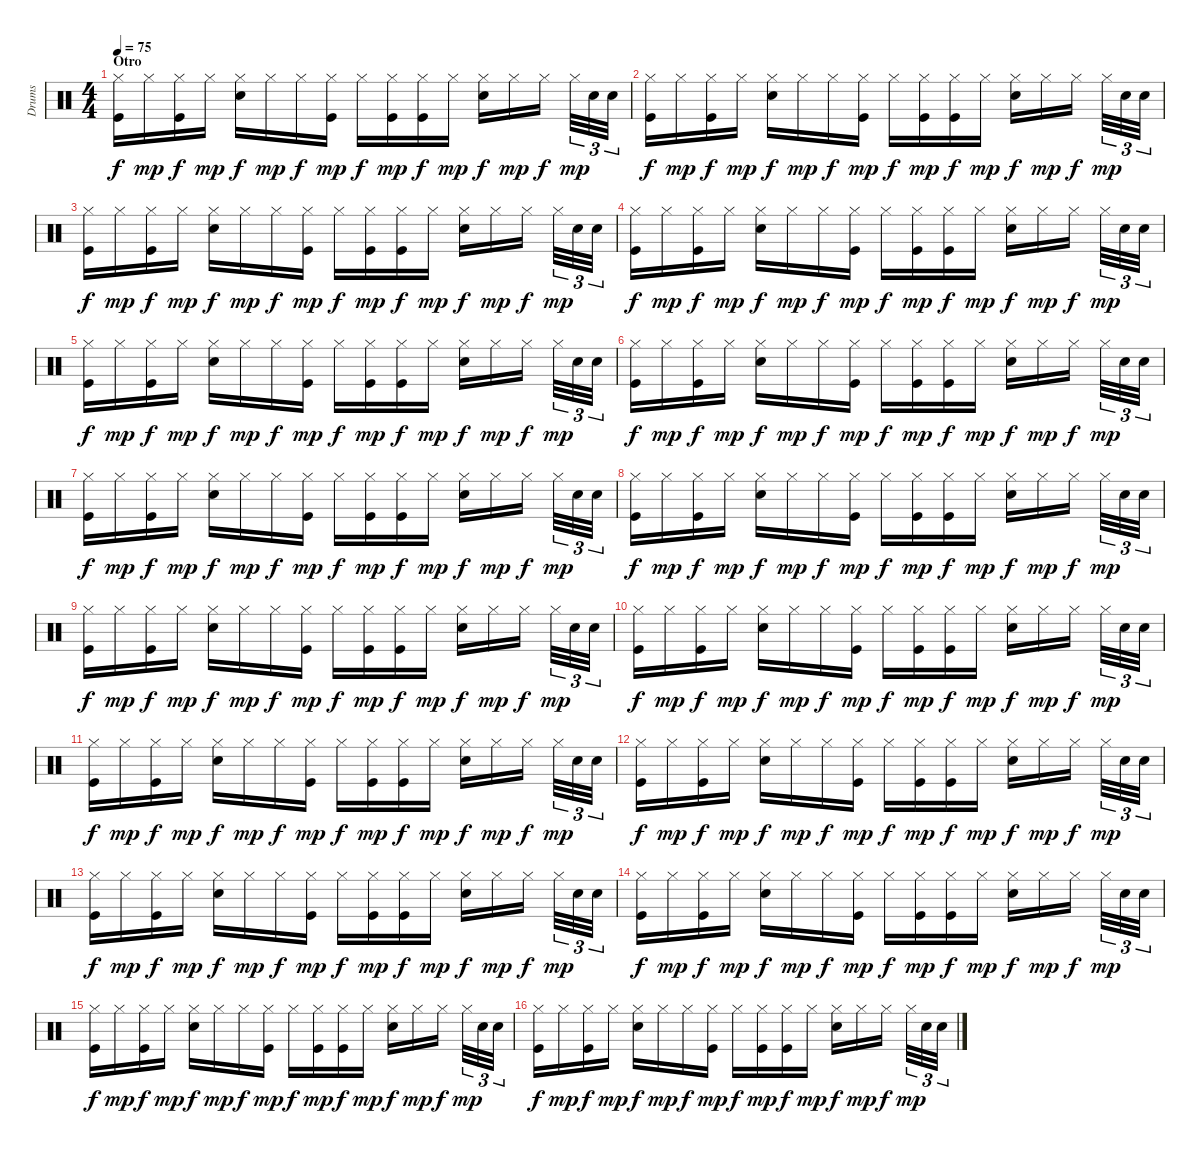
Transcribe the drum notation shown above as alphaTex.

\track ("Drums" "Drums") {instrument percussion}
\staff {score}
\articulation defaults
\ts (4 4)
\section ("" "Otro")
\tempo 75
\clef neutral
\ks c
("Hi-Hat (closed)" "Kick (hit)").16{dy f} "Hi-Hat (closed)".16{dy mp} ("Hi-Hat (closed)" "Kick (hit)").16{dy f} "Hi-Hat (closed)".16{dy mp} ("Hi-Hat (closed)" "Snare (hit) 2").16{dy f} "Hi-Hat (closed)".16{dy mp} "Hi-Hat (closed)".16{dy f} ("Hi-Hat (closed)" "Kick (hit)").16{dy mp} "Hi-Hat (closed)".16{dy f} ("Hi-Hat (closed)" "Kick (hit)").16{dy mp} ("Hi-Hat (closed)" "Kick (hit)").16{dy f} "Hi-Hat (closed)".16{dy mp} ("Hi-Hat (closed)" "Snare (hit) 2").16{dy f} "Hi-Hat (closed)".16{dy mp} "Hi-Hat (closed)".16{dy f beam splitsecondary} "Hi-Hat (closed)".32{tu (3 2) dy mp} "Snare (hit) 2".32{tu (3 2)} "Snare (hit) 2".32{tu (3 2)} |
("Hi-Hat (closed)" "Kick (hit)").16{dy f} "Hi-Hat (closed)".16{dy mp} ("Hi-Hat (closed)" "Kick (hit)").16{dy f} "Hi-Hat (closed)".16{dy mp} ("Hi-Hat (closed)" "Snare (hit) 2").16{dy f} "Hi-Hat (closed)".16{dy mp} "Hi-Hat (closed)".16{dy f} ("Hi-Hat (closed)" "Kick (hit)").16{dy mp} "Hi-Hat (closed)".16{dy f} ("Hi-Hat (closed)" "Kick (hit)").16{dy mp} ("Hi-Hat (closed)" "Kick (hit)").16{dy f} "Hi-Hat (closed)".16{dy mp} ("Hi-Hat (closed)" "Snare (hit) 2").16{dy f} "Hi-Hat (closed)".16{dy mp} "Hi-Hat (closed)".16{dy f beam splitsecondary} "Hi-Hat (closed)".32{tu (3 2) dy mp} "Snare (hit) 2".32{tu (3 2)} "Snare (hit) 2".32{tu (3 2)} |
("Hi-Hat (closed)" "Kick (hit)").16{dy f} "Hi-Hat (closed)".16{dy mp} ("Hi-Hat (closed)" "Kick (hit)").16{dy f} "Hi-Hat (closed)".16{dy mp} ("Hi-Hat (closed)" "Snare (hit) 2").16{dy f} "Hi-Hat (closed)".16{dy mp} "Hi-Hat (closed)".16{dy f} ("Hi-Hat (closed)" "Kick (hit)").16{dy mp} "Hi-Hat (closed)".16{dy f} ("Hi-Hat (closed)" "Kick (hit)").16{dy mp} ("Hi-Hat (closed)" "Kick (hit)").16{dy f} "Hi-Hat (closed)".16{dy mp} ("Hi-Hat (closed)" "Snare (hit) 2").16{dy f} "Hi-Hat (closed)".16{dy mp} "Hi-Hat (closed)".16{dy f beam splitsecondary} "Hi-Hat (closed)".32{tu (3 2) dy mp} "Snare (hit) 2".32{tu (3 2)} "Snare (hit) 2".32{tu (3 2)} |
("Hi-Hat (closed)" "Kick (hit)").16{dy f} "Hi-Hat (closed)".16{dy mp} ("Hi-Hat (closed)" "Kick (hit)").16{dy f} "Hi-Hat (closed)".16{dy mp} ("Hi-Hat (closed)" "Snare (hit) 2").16{dy f} "Hi-Hat (closed)".16{dy mp} "Hi-Hat (closed)".16{dy f} ("Hi-Hat (closed)" "Kick (hit)").16{dy mp} "Hi-Hat (closed)".16{dy f} ("Hi-Hat (closed)" "Kick (hit)").16{dy mp} ("Hi-Hat (closed)" "Kick (hit)").16{dy f} "Hi-Hat (closed)".16{dy mp} ("Hi-Hat (closed)" "Snare (hit) 2").16{dy f} "Hi-Hat (closed)".16{dy mp} "Hi-Hat (closed)".16{dy f beam splitsecondary} "Hi-Hat (closed)".32{tu (3 2) dy mp} "Snare (hit) 2".32{tu (3 2)} "Snare (hit) 2".32{tu (3 2)} |
("Hi-Hat (closed)" "Kick (hit)").16{dy f} "Hi-Hat (closed)".16{dy mp} ("Hi-Hat (closed)" "Kick (hit)").16{dy f} "Hi-Hat (closed)".16{dy mp} ("Hi-Hat (closed)" "Snare (hit) 2").16{dy f} "Hi-Hat (closed)".16{dy mp} "Hi-Hat (closed)".16{dy f} ("Hi-Hat (closed)" "Kick (hit)").16{dy mp} "Hi-Hat (closed)".16{dy f} ("Hi-Hat (closed)" "Kick (hit)").16{dy mp} ("Hi-Hat (closed)" "Kick (hit)").16{dy f} "Hi-Hat (closed)".16{dy mp} ("Hi-Hat (closed)" "Snare (hit) 2").16{dy f} "Hi-Hat (closed)".16{dy mp} "Hi-Hat (closed)".16{dy f beam splitsecondary} "Hi-Hat (closed)".32{tu (3 2) dy mp} "Snare (hit) 2".32{tu (3 2)} "Snare (hit) 2".32{tu (3 2)} |
("Hi-Hat (closed)" "Kick (hit)").16{dy f} "Hi-Hat (closed)".16{dy mp} ("Hi-Hat (closed)" "Kick (hit)").16{dy f} "Hi-Hat (closed)".16{dy mp} ("Hi-Hat (closed)" "Snare (hit) 2").16{dy f} "Hi-Hat (closed)".16{dy mp} "Hi-Hat (closed)".16{dy f} ("Hi-Hat (closed)" "Kick (hit)").16{dy mp} "Hi-Hat (closed)".16{dy f} ("Hi-Hat (closed)" "Kick (hit)").16{dy mp} ("Hi-Hat (closed)" "Kick (hit)").16{dy f} "Hi-Hat (closed)".16{dy mp} ("Hi-Hat (closed)" "Snare (hit) 2").16{dy f} "Hi-Hat (closed)".16{dy mp} "Hi-Hat (closed)".16{dy f beam splitsecondary} "Hi-Hat (closed)".32{tu (3 2) dy mp} "Snare (hit) 2".32{tu (3 2)} "Snare (hit) 2".32{tu (3 2)} |
("Hi-Hat (closed)" "Kick (hit)").16{dy f} "Hi-Hat (closed)".16{dy mp} ("Hi-Hat (closed)" "Kick (hit)").16{dy f} "Hi-Hat (closed)".16{dy mp} ("Hi-Hat (closed)" "Snare (hit) 2").16{dy f} "Hi-Hat (closed)".16{dy mp} "Hi-Hat (closed)".16{dy f} ("Hi-Hat (closed)" "Kick (hit)").16{dy mp} "Hi-Hat (closed)".16{dy f} ("Hi-Hat (closed)" "Kick (hit)").16{dy mp} ("Hi-Hat (closed)" "Kick (hit)").16{dy f} "Hi-Hat (closed)".16{dy mp} ("Hi-Hat (closed)" "Snare (hit) 2").16{dy f} "Hi-Hat (closed)".16{dy mp} "Hi-Hat (closed)".16{dy f beam splitsecondary} "Hi-Hat (closed)".32{tu (3 2) dy mp} "Snare (hit) 2".32{tu (3 2)} "Snare (hit) 2".32{tu (3 2)} |
("Hi-Hat (closed)" "Kick (hit)").16{dy f} "Hi-Hat (closed)".16{dy mp} ("Hi-Hat (closed)" "Kick (hit)").16{dy f} "Hi-Hat (closed)".16{dy mp} ("Hi-Hat (closed)" "Snare (hit) 2").16{dy f} "Hi-Hat (closed)".16{dy mp} "Hi-Hat (closed)".16{dy f} ("Hi-Hat (closed)" "Kick (hit)").16{dy mp} "Hi-Hat (closed)".16{dy f} ("Hi-Hat (closed)" "Kick (hit)").16{dy mp} ("Hi-Hat (closed)" "Kick (hit)").16{dy f} "Hi-Hat (closed)".16{dy mp} ("Hi-Hat (closed)" "Snare (hit) 2").16{dy f} "Hi-Hat (closed)".16{dy mp} "Hi-Hat (closed)".16{dy f beam splitsecondary} "Hi-Hat (closed)".32{tu (3 2) dy mp} "Snare (hit) 2".32{tu (3 2)} "Snare (hit) 2".32{tu (3 2)} |
("Hi-Hat (closed)" "Kick (hit)").16{dy f} "Hi-Hat (closed)".16{dy mp} ("Hi-Hat (closed)" "Kick (hit)").16{dy f} "Hi-Hat (closed)".16{dy mp} ("Hi-Hat (closed)" "Snare (hit) 2").16{dy f} "Hi-Hat (closed)".16{dy mp} "Hi-Hat (closed)".16{dy f} ("Hi-Hat (closed)" "Kick (hit)").16{dy mp} "Hi-Hat (closed)".16{dy f} ("Hi-Hat (closed)" "Kick (hit)").16{dy mp} ("Hi-Hat (closed)" "Kick (hit)").16{dy f} "Hi-Hat (closed)".16{dy mp} ("Hi-Hat (closed)" "Snare (hit) 2").16{dy f} "Hi-Hat (closed)".16{dy mp} "Hi-Hat (closed)".16{dy f beam splitsecondary} "Hi-Hat (closed)".32{tu (3 2) dy mp} "Snare (hit) 2".32{tu (3 2)} "Snare (hit) 2".32{tu (3 2)} |
("Hi-Hat (closed)" "Kick (hit)").16{dy f} "Hi-Hat (closed)".16{dy mp} ("Hi-Hat (closed)" "Kick (hit)").16{dy f} "Hi-Hat (closed)".16{dy mp} ("Hi-Hat (closed)" "Snare (hit) 2").16{dy f} "Hi-Hat (closed)".16{dy mp} "Hi-Hat (closed)".16{dy f} ("Hi-Hat (closed)" "Kick (hit)").16{dy mp} "Hi-Hat (closed)".16{dy f} ("Hi-Hat (closed)" "Kick (hit)").16{dy mp} ("Hi-Hat (closed)" "Kick (hit)").16{dy f} "Hi-Hat (closed)".16{dy mp} ("Hi-Hat (closed)" "Snare (hit) 2").16{dy f} "Hi-Hat (closed)".16{dy mp} "Hi-Hat (closed)".16{dy f beam splitsecondary} "Hi-Hat (closed)".32{tu (3 2) dy mp} "Snare (hit) 2".32{tu (3 2)} "Snare (hit) 2".32{tu (3 2)} |
("Hi-Hat (closed)" "Kick (hit)").16{dy f} "Hi-Hat (closed)".16{dy mp} ("Hi-Hat (closed)" "Kick (hit)").16{dy f} "Hi-Hat (closed)".16{dy mp} ("Hi-Hat (closed)" "Snare (hit) 2").16{dy f} "Hi-Hat (closed)".16{dy mp} "Hi-Hat (closed)".16{dy f} ("Hi-Hat (closed)" "Kick (hit)").16{dy mp} "Hi-Hat (closed)".16{dy f} ("Hi-Hat (closed)" "Kick (hit)").16{dy mp} ("Hi-Hat (closed)" "Kick (hit)").16{dy f} "Hi-Hat (closed)".16{dy mp} ("Hi-Hat (closed)" "Snare (hit) 2").16{dy f} "Hi-Hat (closed)".16{dy mp} "Hi-Hat (closed)".16{dy f beam splitsecondary} "Hi-Hat (closed)".32{tu (3 2) dy mp} "Snare (hit) 2".32{tu (3 2)} "Snare (hit) 2".32{tu (3 2)} |
("Hi-Hat (closed)" "Kick (hit)").16{dy f} "Hi-Hat (closed)".16{dy mp} ("Hi-Hat (closed)" "Kick (hit)").16{dy f} "Hi-Hat (closed)".16{dy mp} ("Hi-Hat (closed)" "Snare (hit) 2").16{dy f} "Hi-Hat (closed)".16{dy mp} "Hi-Hat (closed)".16{dy f} ("Hi-Hat (closed)" "Kick (hit)").16{dy mp} "Hi-Hat (closed)".16{dy f} ("Hi-Hat (closed)" "Kick (hit)").16{dy mp} ("Hi-Hat (closed)" "Kick (hit)").16{dy f} "Hi-Hat (closed)".16{dy mp} ("Hi-Hat (closed)" "Snare (hit) 2").16{dy f} "Hi-Hat (closed)".16{dy mp} "Hi-Hat (closed)".16{dy f beam splitsecondary} "Hi-Hat (closed)".32{tu (3 2) dy mp} "Snare (hit) 2".32{tu (3 2)} "Snare (hit) 2".32{tu (3 2)} |
("Hi-Hat (closed)" "Kick (hit)").16{dy f} "Hi-Hat (closed)".16{dy mp} ("Hi-Hat (closed)" "Kick (hit)").16{dy f} "Hi-Hat (closed)".16{dy mp} ("Hi-Hat (closed)" "Snare (hit) 2").16{dy f} "Hi-Hat (closed)".16{dy mp} "Hi-Hat (closed)".16{dy f} ("Hi-Hat (closed)" "Kick (hit)").16{dy mp} "Hi-Hat (closed)".16{dy f} ("Hi-Hat (closed)" "Kick (hit)").16{dy mp} ("Hi-Hat (closed)" "Kick (hit)").16{dy f} "Hi-Hat (closed)".16{dy mp} ("Hi-Hat (closed)" "Snare (hit) 2").16{dy f} "Hi-Hat (closed)".16{dy mp} "Hi-Hat (closed)".16{dy f beam splitsecondary} "Hi-Hat (closed)".32{tu (3 2) dy mp} "Snare (hit) 2".32{tu (3 2)} "Snare (hit) 2".32{tu (3 2)} |
("Hi-Hat (closed)" "Kick (hit)").16{dy f} "Hi-Hat (closed)".16{dy mp} ("Hi-Hat (closed)" "Kick (hit)").16{dy f} "Hi-Hat (closed)".16{dy mp} ("Hi-Hat (closed)" "Snare (hit) 2").16{dy f} "Hi-Hat (closed)".16{dy mp} "Hi-Hat (closed)".16{dy f} ("Hi-Hat (closed)" "Kick (hit)").16{dy mp} "Hi-Hat (closed)".16{dy f} ("Hi-Hat (closed)" "Kick (hit)").16{dy mp} ("Hi-Hat (closed)" "Kick (hit)").16{dy f} "Hi-Hat (closed)".16{dy mp} ("Hi-Hat (closed)" "Snare (hit) 2").16{dy f} "Hi-Hat (closed)".16{dy mp} "Hi-Hat (closed)".16{dy f beam splitsecondary} "Hi-Hat (closed)".32{tu (3 2) dy mp} "Snare (hit) 2".32{tu (3 2)} "Snare (hit) 2".32{tu (3 2)} |
("Hi-Hat (closed)" "Kick (hit)").16{dy f} "Hi-Hat (closed)".16{dy mp} ("Hi-Hat (closed)" "Kick (hit)").16{dy f} "Hi-Hat (closed)".16{dy mp} ("Hi-Hat (closed)" "Snare (hit) 2").16{dy f} "Hi-Hat (closed)".16{dy mp} "Hi-Hat (closed)".16{dy f} ("Hi-Hat (closed)" "Kick (hit)").16{dy mp} "Hi-Hat (closed)".16{dy f} ("Hi-Hat (closed)" "Kick (hit)").16{dy mp} ("Hi-Hat (closed)" "Kick (hit)").16{dy f} "Hi-Hat (closed)".16{dy mp} ("Hi-Hat (closed)" "Snare (hit) 2").16{dy f} "Hi-Hat (closed)".16{dy mp} "Hi-Hat (closed)".16{dy f beam splitsecondary} "Hi-Hat (closed)".32{tu (3 2) dy mp} "Snare (hit) 2".32{tu (3 2)} "Snare (hit) 2".32{tu (3 2)} |
("Hi-Hat (closed)" "Kick (hit)").16{dy f} "Hi-Hat (closed)".16{dy mp} ("Hi-Hat (closed)" "Kick (hit)").16{dy f} "Hi-Hat (closed)".16{dy mp} ("Hi-Hat (closed)" "Snare (hit) 2").16{dy f} "Hi-Hat (closed)".16{dy mp} "Hi-Hat (closed)".16{dy f} ("Hi-Hat (closed)" "Kick (hit)").16{dy mp} "Hi-Hat (closed)".16{dy f} ("Hi-Hat (closed)" "Kick (hit)").16{dy mp} ("Hi-Hat (closed)" "Kick (hit)").16{dy f} "Hi-Hat (closed)".16{dy mp} ("Hi-Hat (closed)" "Snare (hit) 2").16{dy f} "Hi-Hat (closed)".16{dy mp} "Hi-Hat (closed)".16{dy f beam splitsecondary} "Hi-Hat (closed)".32{tu (3 2) dy mp} "Snare (hit) 2".32{tu (3 2)} "Snare (hit) 2".32{tu (3 2)}
